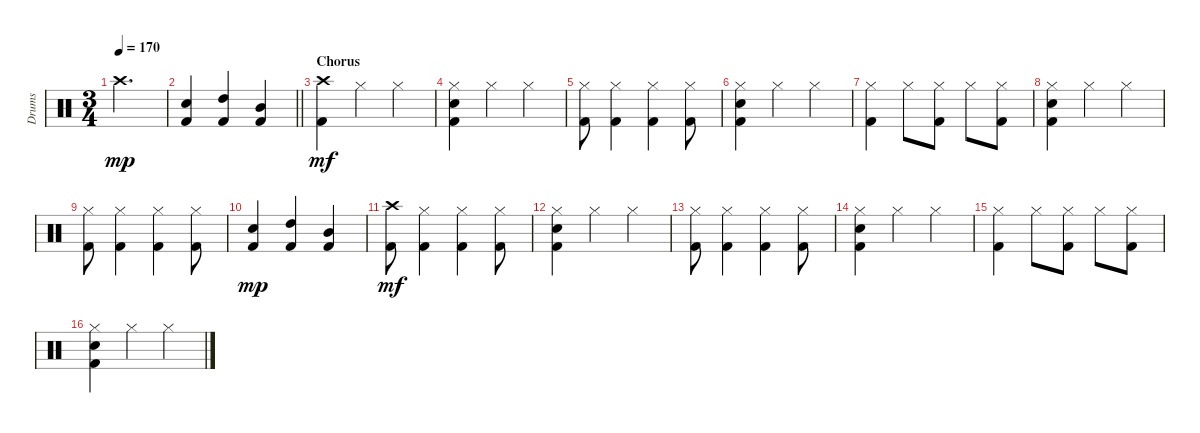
\track ("Drums" "Drums") {instrument percussion}
\staff {score}
\articulation defaults
\ts (3 4)
\tempo 170
\clef neutral
\ks c "Crash high (hit)".2{d dy mp}
|
\barLineRight lightlight
("Snare (hit) 2" "Kick (hit) 2").4 ("High Tom (hit)" "Kick (hit) 2").4 ("Mid Tom (hit)" "Kick (hit) 2").4 |
\section ("" "Chorus")
("Crash high (hit)" "Kick (hit) 2").4{dy mf} "Hi-Hat (closed)".4 "Hi-Hat (closed)".4 |
("Hi-Hat (closed)" "Snare (hit) 2" "Kick (hit) 2").4 "Hi-Hat (closed)".4 "Hi-Hat (closed)".4 |
("Hi-Hat (closed)" "Kick (hit) 2").8 ("Hi-Hat (closed)" "Kick (hit) 2").4 ("Hi-Hat (closed)" "Kick (hit) 2").4 ("Hi-Hat (closed)" "Kick (hit) 2").8 |
("Hi-Hat (closed)" "Snare (hit) 2" "Kick (hit) 2").4 "Hi-Hat (closed)".4 "Hi-Hat (closed)".4 |
("Hi-Hat (closed)" "Kick (hit) 2").4 "Hi-Hat (closed)".8 ("Hi-Hat (closed)" "Kick (hit) 2").8 "Hi-Hat (closed)".8 ("Hi-Hat (closed)" "Kick (hit) 2").8 |
("Hi-Hat (closed)" "Snare (hit) 2" "Kick (hit) 2").4 "Hi-Hat (closed)".4 "Hi-Hat (closed)".4 |
("Hi-Hat (closed)" "Kick (hit) 2").8 ("Hi-Hat (closed)" "Kick (hit) 2").4 ("Hi-Hat (closed)" "Kick (hit) 2").4 ("Hi-Hat (closed)" "Kick (hit) 2").8 |
("Snare (hit) 2" "Kick (hit) 2").4{dy mp} ("High Tom (hit)" "Kick (hit) 2").4 ("Mid Tom (hit)" "Kick (hit) 2").4 |
("Crash high (hit)" "Kick (hit) 2").8{dy mf} ("Hi-Hat (closed)" "Kick (hit) 2").4 ("Hi-Hat (closed)" "Kick (hit) 2").4 ("Hi-Hat (closed)" "Kick (hit) 2").8 |
("Hi-Hat (closed)" "Snare (hit) 2" "Kick (hit) 2").4 "Hi-Hat (closed)".4 "Hi-Hat (closed)".4 |
("Hi-Hat (closed)" "Kick (hit) 2").8 ("Hi-Hat (closed)" "Kick (hit) 2").4 ("Hi-Hat (closed)" "Kick (hit) 2").4 ("Hi-Hat (closed)" "Kick (hit) 2").8 |
("Hi-Hat (closed)" "Snare (hit) 2" "Kick (hit) 2").4 "Hi-Hat (closed)".4 "Hi-Hat (closed)".4 |
("Hi-Hat (closed)" "Kick (hit) 2").4 "Hi-Hat (closed)".8 ("Hi-Hat (closed)" "Kick (hit) 2").8 "Hi-Hat (closed)".8 ("Hi-Hat (closed)" "Kick (hit) 2").8 |
("Hi-Hat (closed)" "Snare (hit) 2" "Kick (hit) 2").4 "Hi-Hat (closed)".4 "Hi-Hat (closed)".4
